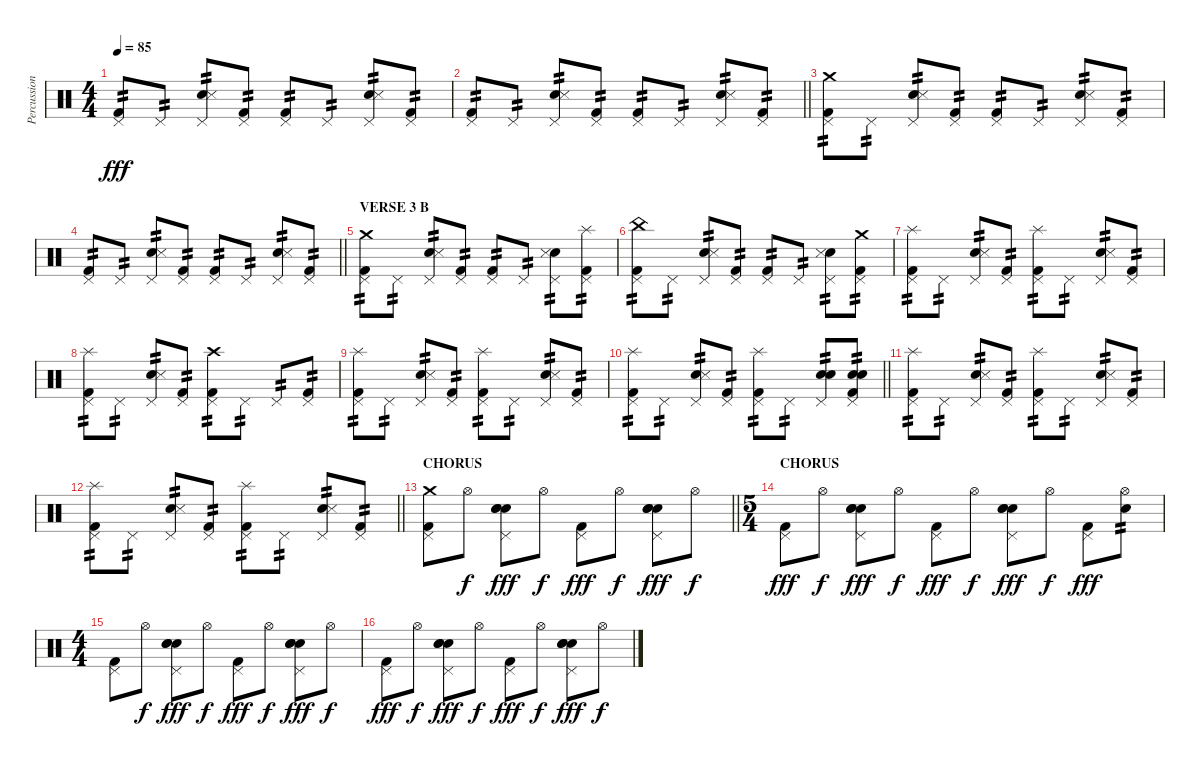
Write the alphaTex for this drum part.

\track ("Percussion" "Percussion") {instrument percussion}
\staff {score}
\articulation defaults
\ts (4 4)
\tempo 85
\clef neutral
\ks c
("Pedal Hi-Hat (hit)" "Kick (hit) 2").8{tp 2 dy fff} "Pedal Hi-Hat (hit)".8{tp 2} ("Pedal Hi-Hat (hit)" "Electric Snare (hit)" "Snare (side stick) 3").8{tp 2} ("Pedal Hi-Hat (hit)" "Kick (hit) 2").8{tp 2} ("Pedal Hi-Hat (hit)" "Kick (hit) 2").8{tp 2} "Pedal Hi-Hat (hit)".8{tp 2} ("Pedal Hi-Hat (hit)" "Electric Snare (hit)" "Snare (side stick) 3").8{tp 2} ("Pedal Hi-Hat (hit)" "Kick (hit) 2").8{tp 2} |
\barLineRight lightlight
("Pedal Hi-Hat (hit)" "Kick (hit) 2").8{tp 2} "Pedal Hi-Hat (hit)".8{tp 2} ("Pedal Hi-Hat (hit)" "Electric Snare (hit)" "Snare (side stick) 3").8{tp 2} ("Pedal Hi-Hat (hit)" "Kick (hit) 2").8{tp 2} ("Pedal Hi-Hat (hit)" "Kick (hit) 2").8{tp 2} "Pedal Hi-Hat (hit)".8{tp 2} ("Pedal Hi-Hat (hit)" "Electric Snare (hit)" "Snare (side stick) 3").8{tp 2} ("Pedal Hi-Hat (hit)" "Kick (hit) 2").8{tp 2} |
("Pedal Hi-Hat (hit)" "Crash medium (hit)" "Kick (hit) 2").8{tp 2} "Pedal Hi-Hat (hit)".8{tp 2} ("Pedal Hi-Hat (hit)" "Electric Snare (hit)" "Snare (side stick) 3").8{tp 2} ("Pedal Hi-Hat (hit)" "Kick (hit) 2").8{tp 2} ("Pedal Hi-Hat (hit)" "Kick (hit) 2").8{tp 2} "Pedal Hi-Hat (hit)".8{tp 2} ("Pedal Hi-Hat (hit)" "Electric Snare (hit)" "Snare (side stick) 3").8{tp 2} ("Pedal Hi-Hat (hit)" "Kick (hit) 2").8{tp 2} |
\barLineRight lightlight
("Pedal Hi-Hat (hit)" "Kick (hit) 2").8{tp 2} "Pedal Hi-Hat (hit)".8{tp 2} ("Pedal Hi-Hat (hit)" "Electric Snare (hit)" "Snare (side stick) 3").8{tp 2} ("Pedal Hi-Hat (hit)" "Kick (hit) 2").8{tp 2} ("Pedal Hi-Hat (hit)" "Kick (hit) 2").8{tp 2} "Pedal Hi-Hat (hit)".8{tp 2} ("Pedal Hi-Hat (hit)" "Electric Snare (hit)" "Snare (side stick) 3").8{tp 2} ("Pedal Hi-Hat (hit)" "Kick (hit) 2").8{tp 2} |
\section ("" "VERSE 3 B")
("Pedal Hi-Hat (hit)" "Crash medium (hit)" "Kick (hit) 2").8{tp 2} "Pedal Hi-Hat (hit)".8{tp 2} ("Pedal Hi-Hat (hit)" "Electric Snare (hit)" "Snare (side stick) 3").8{tp 2} ("Pedal Hi-Hat (hit)" "Kick (hit) 2").8{tp 2} ("Pedal Hi-Hat (hit)" "Kick (hit) 2").8{tp 2} "Pedal Hi-Hat (hit)".8{tp 2} ("Pedal Hi-Hat (hit)" "Electric Snare (hit)" "Snare (side stick) 3").8{tp 2} ("Pedal Hi-Hat (hit)" "Splash (hit)" "Kick (hit) 2").8{tp 2} |
("Pedal Hi-Hat (hit)" "China (hit)" "Kick (hit) 2").8{tp 2} "Pedal Hi-Hat (hit)".8{tp 2} ("Pedal Hi-Hat (hit)" "Electric Snare (hit)" "Snare (side stick) 3").8{tp 2} ("Pedal Hi-Hat (hit)" "Kick (hit) 2").8{tp 2} ("Pedal Hi-Hat (hit)" "Kick (hit) 2").8{tp 2} "Pedal Hi-Hat (hit)".8{tp 2} ("Pedal Hi-Hat (hit)" "Electric Snare (hit)" "Snare (side stick) 3").8{tp 2} ("Pedal Hi-Hat (hit)" "Crash medium (hit)" "Kick (hit) 2").8{tp 2} |
("Pedal Hi-Hat (hit)" "Splash (hit)" "Kick (hit) 2").8{tp 2} "Pedal Hi-Hat (hit)".8{tp 2} ("Pedal Hi-Hat (hit)" "Electric Snare (hit)" "Snare (side stick) 3").8{tp 2} ("Pedal Hi-Hat (hit)" "Kick (hit) 2").8{tp 2} ("Pedal Hi-Hat (hit)" "Splash (hit)" "Kick (hit) 2").8{tp 2} "Pedal Hi-Hat (hit)".8{tp 2} ("Pedal Hi-Hat (hit)" "Electric Snare (hit)" "Snare (side stick) 3").8{tp 2} ("Pedal Hi-Hat (hit)" "Kick (hit) 2").8{tp 2} |
("Pedal Hi-Hat (hit)" "Splash (hit)" "Kick (hit) 2").8{tp 2} "Pedal Hi-Hat (hit)".8{tp 2} ("Pedal Hi-Hat (hit)" "Electric Snare (hit)" "Snare (side stick) 3").8{tp 2} ("Pedal Hi-Hat (hit)" "Kick (hit) 2").8{tp 2} ("Pedal Hi-Hat (hit)" "Crash high (hit)" "Kick (hit) 2").8{tp 2} "Pedal Hi-Hat (hit)".8{tp 2} "Pedal Hi-Hat (hit)".8{tp 2} ("Pedal Hi-Hat (hit)" "Kick (hit) 2").8{tp 2} |
("Pedal Hi-Hat (hit)" "Splash (hit)" "Kick (hit) 2").8{tp 2} "Pedal Hi-Hat (hit)".8{tp 2} ("Pedal Hi-Hat (hit)" "Electric Snare (hit)" "Snare (side stick) 3").8{tp 2} ("Pedal Hi-Hat (hit)" "Kick (hit) 2").8{tp 2} ("Pedal Hi-Hat (hit)" "Splash (hit)" "Kick (hit) 2").8{tp 2} "Pedal Hi-Hat (hit)".8{tp 2} ("Pedal Hi-Hat (hit)" "Electric Snare (hit)" "Snare (side stick) 3").8{tp 2} ("Pedal Hi-Hat (hit)" "Kick (hit) 2").8{tp 2} |
\barLineRight lightlight
("Pedal Hi-Hat (hit)" "Splash (hit)" "Kick (hit) 2").8{tp 2} "Pedal Hi-Hat (hit)".8{tp 2} ("Pedal Hi-Hat (hit)" "Electric Snare (hit)" "Snare (side stick) 3").8{tp 2} ("Pedal Hi-Hat (hit)" "Kick (hit) 2").8{tp 2} ("Pedal Hi-Hat (hit)" "Splash (hit)" "Kick (hit) 2").8{tp 2} "Pedal Hi-Hat (hit)".8{tp 2} ("Pedal Hi-Hat (hit)" "Electric Snare (hit)" "Snare (hit) 2").8{tp 2} ("Pedal Hi-Hat (hit)" "Electric Snare (hit)" "Snare (hit) 2" "Kick (hit) 2").8{tp 2} |
("Pedal Hi-Hat (hit)" "Splash (hit)" "Kick (hit) 2").8{tp 2} "Pedal Hi-Hat (hit)".8{tp 2} ("Pedal Hi-Hat (hit)" "Electric Snare (hit)" "Snare (side stick) 3").8{tp 2} ("Pedal Hi-Hat (hit)" "Kick (hit) 2").8{tp 2} ("Pedal Hi-Hat (hit)" "Splash (hit)" "Kick (hit) 2").8{tp 2} "Pedal Hi-Hat (hit)".8{tp 2} ("Pedal Hi-Hat (hit)" "Electric Snare (hit)" "Snare (side stick) 3").8{tp 2} ("Pedal Hi-Hat (hit)" "Kick (hit) 2").8{tp 2} |
\barLineRight lightlight
("Pedal Hi-Hat (hit)" "Splash (hit)" "Kick (hit) 2").8{tp 2} "Pedal Hi-Hat (hit)".8{tp 2} ("Pedal Hi-Hat (hit)" "Electric Snare (hit)" "Snare (side stick) 3").8{tp 2} ("Pedal Hi-Hat (hit)" "Kick (hit) 2").8{tp 2} ("Pedal Hi-Hat (hit)" "Splash (hit)" "Kick (hit) 2").8{tp 2} "Pedal Hi-Hat (hit)".8{tp 2} ("Pedal Hi-Hat (hit)" "Electric Snare (hit)" "Snare (side stick) 3").8{tp 2} ("Pedal Hi-Hat (hit)" "Kick (hit) 2").8{tp 2} |
\section ("" "CHORUS")
\barLineRight lightlight
("Crash medium (hit)" "Pedal Hi-Hat (hit)" "Kick (hit) 2").8 "Hi-Hat (open)".8{dy f} ("Pedal Hi-Hat (hit)" "Hand Clap (hit)" "Electric Snare (hit)" "Snare (hit) 2").8{dy fff} "Hi-Hat (open)".8{dy f} ("Pedal Hi-Hat (hit)" "Kick (hit) 2").8{dy fff} "Hi-Hat (open)".8{dy f} ("Pedal Hi-Hat (hit)" "Hand Clap (hit)" "Electric Snare (hit)" "Snare (hit) 2").8{dy fff} "Hi-Hat (open)".8{dy f} |
\ts (5 4)
\section ("" "CHORUS")
("Pedal Hi-Hat (hit)" "Kick (hit) 2").8{dy fff} "Hi-Hat (open)".8{dy f} ("Pedal Hi-Hat (hit)" "Hand Clap (hit)" "Electric Snare (hit)" "Snare (hit) 2").8{dy fff} "Hi-Hat (open)".8{dy f} ("Pedal Hi-Hat (hit)" "Kick (hit) 2").8{dy fff} "Hi-Hat (open)".8{dy f} ("Pedal Hi-Hat (hit)" "Hand Clap (hit)" "Electric Snare (hit)" "Snare (hit) 2").8{dy fff} "Hi-Hat (open)".8{dy f} ("Pedal Hi-Hat (hit)" "Kick (hit) 2").8{dy fff} ("Hi-Hat (open)" "Electric Snare (hit)").8{tp 2} |
\ts (4 4)
("Pedal Hi-Hat (hit)" "Kick (hit) 2").8 "Hi-Hat (open)".8{dy f} ("Pedal Hi-Hat (hit)" "Hand Clap (hit)" "Electric Snare (hit)" "Snare (hit) 2").8{dy fff} "Hi-Hat (open)".8{dy f} ("Pedal Hi-Hat (hit)" "Kick (hit) 2").8{dy fff} "Hi-Hat (open)".8{dy f} ("Pedal Hi-Hat (hit)" "Hand Clap (hit)" "Electric Snare (hit)" "Snare (hit) 2").8{dy fff} "Hi-Hat (open)".8{dy f} |
("Pedal Hi-Hat (hit)" "Kick (hit) 2").8{dy fff} "Hi-Hat (open)".8{dy f} ("Pedal Hi-Hat (hit)" "Hand Clap (hit)" "Electric Snare (hit)" "Snare (hit) 2").8{dy fff} "Hi-Hat (open)".8{dy f} ("Pedal Hi-Hat (hit)" "Kick (hit) 2").8{dy fff} "Hi-Hat (open)".8{dy f} ("Pedal Hi-Hat (hit)" "Hand Clap (hit)" "Electric Snare (hit)" "Snare (hit) 2").8{dy fff} "Hi-Hat (open)".8{dy f}
